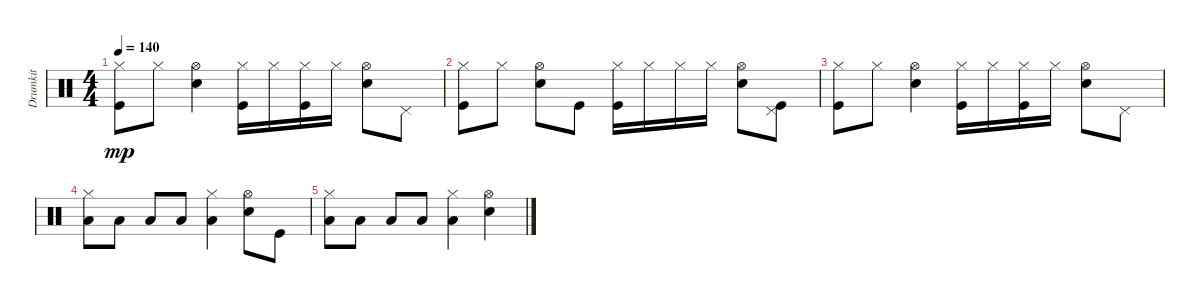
\track ("Drumkit" "Drumkit") {instrument percussion}
\staff {score}
\articulation defaults
\ts (4 4)
\tempo 140
\clef neutral
\ks c
("Hi-Hat (closed)" "Kick (hit)").8{dy mp} "Hi-Hat (closed)".8 ("Snare (hit) 2" "Hi-Hat (open)").4 ("Hi-Hat (closed)" "Kick (hit)").16 "Hi-Hat (closed)".16 ("Hi-Hat (closed)" "Kick (hit)").16 "Hi-Hat (closed)".16 ("Hi-Hat (open)" "Snare (hit) 2").8 "Pedal Hi-Hat (hit)".8 |
("Hi-Hat (closed)" "Kick (hit)").8 "Hi-Hat (closed)".8 ("Snare (hit) 2" "Hi-Hat (open)").8 "Kick (hit)".8 ("Hi-Hat (closed)" "Kick (hit)").16 "Hi-Hat (closed)".16 "Hi-Hat (closed)".16 "Hi-Hat (closed)".16 ("Hi-Hat (open)" "Snare (hit) 2").8 ("Pedal Hi-Hat (hit)" "Kick (hit)").8 |
("Hi-Hat (closed)" "Kick (hit)").8 "Hi-Hat (closed)".8 ("Snare (hit) 2" "Hi-Hat (open)").4 ("Hi-Hat (closed)" "Kick (hit)").16 "Hi-Hat (closed)".16 ("Hi-Hat (closed)" "Kick (hit)").16 "Hi-Hat (closed)".16 ("Hi-Hat (open)" "Snare (hit) 2").8 "Pedal Hi-Hat (hit)".8 |
("Low Floor Tom (hit)" "Hi-Hat (closed)").8 "Low Floor Tom (hit)".8 "Low Tom (hit)".8 "Low Tom (hit)".8 ("Low Floor Tom (hit)" "Hi-Hat (closed)").4 ("Snare (hit) 2" "Hi-Hat (open)").8 "Kick (hit)".8 |
("Low Floor Tom (hit)" "Hi-Hat (closed)").8 "Low Floor Tom (hit)".8 "Low Tom (hit)".8 "Low Tom (hit)".8 ("Low Floor Tom (hit)" "Hi-Hat (closed)").4 ("Snare (hit) 2" "Hi-Hat (open)").4
